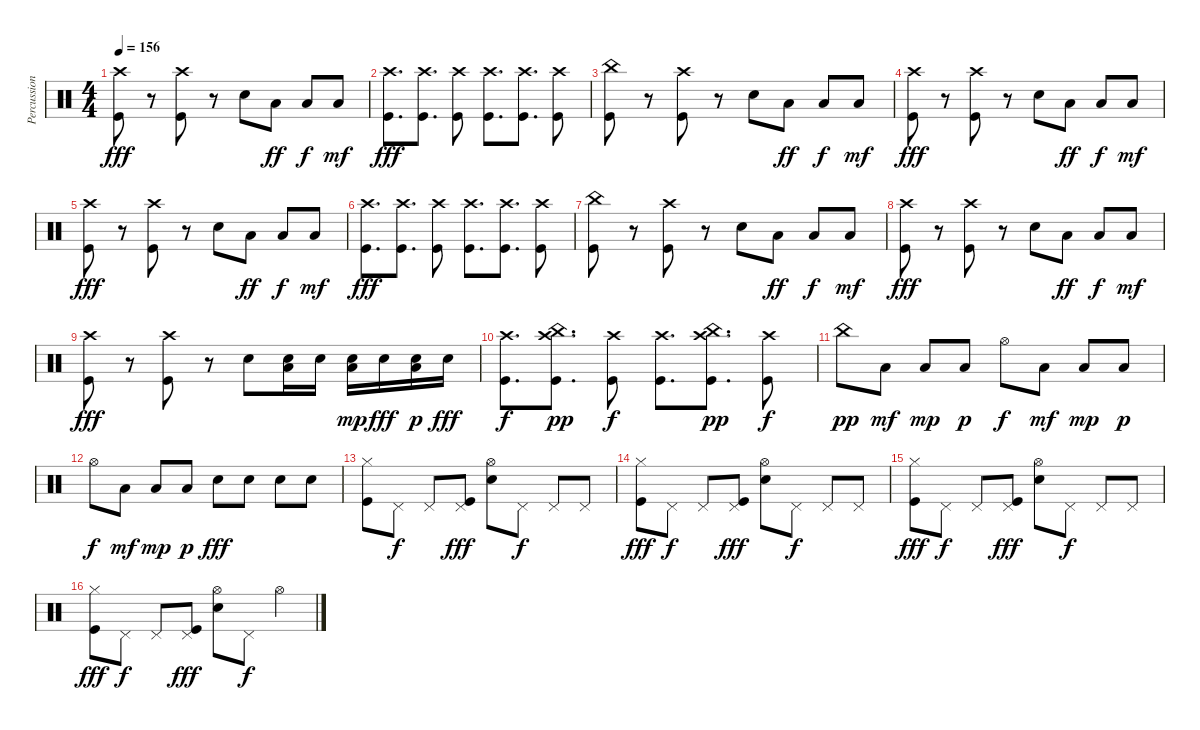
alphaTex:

\track ("Percussion" "Percussion") {instrument percussion}
\staff {score}
\articulation defaults
\ts (4 4)
\tempo 156
\clef neutral
\ks c
("Crash high (hit)" "Kick (hit)").8{dy fff} r.8 ("Crash high (hit)" "Kick (hit)").8 r.8 "Snare (hit) 2".8 "Low Tom (hit)".8{dy ff} "Low Tom (hit)".8{dy f} "Low Tom (hit)".8{dy mf} |
("Crash high (hit)" "Kick (hit)").8{d dy fff} ("Crash high (hit)" "Kick (hit)").8{d} ("Crash high (hit)" "Kick (hit)").8 ("Crash high (hit)" "Kick (hit)").8{d} ("Crash high (hit)" "Kick (hit)").8{d} ("Crash high (hit)" "Kick (hit)").8 |
("China (hit)" "Kick (hit)").8 r.8 ("Crash high (hit)" "Kick (hit)").8 r.8 "Snare (hit) 2".8 "Low Tom (hit)".8{dy ff} "Low Tom (hit)".8{dy f} "Low Tom (hit)".8{dy mf} |
("Crash high (hit)" "Kick (hit)").8{dy fff} r.8 ("Crash high (hit)" "Kick (hit)").8 r.8 "Snare (hit) 2".8 "Low Tom (hit)".8{dy ff} "Low Tom (hit)".8{dy f} "Low Tom (hit)".8{dy mf} |
("Crash high (hit)" "Kick (hit)").8{dy fff} r.8 ("Crash high (hit)" "Kick (hit)").8 r.8 "Snare (hit) 2".8 "Low Tom (hit)".8{dy ff} "Low Tom (hit)".8{dy f} "Low Tom (hit)".8{dy mf} |
("Crash high (hit)" "Kick (hit)").8{d dy fff} ("Crash high (hit)" "Kick (hit)").8{d} ("Crash high (hit)" "Kick (hit)").8 ("Crash high (hit)" "Kick (hit)").8{d} ("Crash high (hit)" "Kick (hit)").8{d} ("Crash high (hit)" "Kick (hit)").8 |
("China (hit)" "Kick (hit)").8 r.8 ("Crash high (hit)" "Kick (hit)").8 r.8 "Snare (hit) 2".8 "Low Tom (hit)".8{dy ff} "Low Tom (hit)".8{dy f} "Low Tom (hit)".8{dy mf} |
("Crash high (hit)" "Kick (hit)").8{dy fff} r.8 ("Crash high (hit)" "Kick (hit)").8 r.8 "Snare (hit) 2".8 "Low Tom (hit)".8{dy ff} "Low Tom (hit)".8{dy f} "Low Tom (hit)".8{dy mf} |
("Crash high (hit)" "Kick (hit)").8{dy fff} r.8 ("Crash high (hit)" "Kick (hit)").8 r.8 "Snare (hit) 2".8 ("Snare (hit) 2" "Low Tom (hit)").16 "Snare (hit) 2".16 ("Snare (hit) 2" "Low Tom (hit)").16{dy mp} "Snare (hit) 2".16{dy fff} ("Snare (hit) 2" "Low Tom (hit)").16{dy p} "Snare (hit) 2".16{dy fff} |
("Crash high (hit)" "Kick (hit)").8{d dy f} ("Crash high (hit)" "China (hit)" "Kick (hit)").8{d dy pp} ("Crash high (hit)" "Kick (hit)").8{dy f} ("Crash high (hit)" "Kick (hit)").8{d} ("Crash high (hit)" "China (hit)" "Kick (hit)").8{d dy pp} ("Crash high (hit)" "Kick (hit)").8{dy f} |
"China (hit)".8{dy pp} "Low Tom (hit)".8{dy mf} "Low Tom (hit)".8{dy mp} "Low Tom (hit)".8{dy p} "Hi-Hat (open)".8{dy f} "Low Tom (hit)".8{dy mf} "Low Tom (hit)".8{dy mp} "Low Tom (hit)".8{dy p} |
"Hi-Hat (open)".8{dy f} "Low Tom (hit)".8{dy mf} "Low Tom (hit)".8{dy mp} "Low Tom (hit)".8{dy p} "Snare (hit) 2".8{dy fff} "Snare (hit) 2".8 "Snare (hit) 2".8 "Snare (hit) 2".8 |
("Hi-Hat (closed)" "Kick (hit)").8 "Pedal Hi-Hat (hit)".8{dy f} "Pedal Hi-Hat (hit)".8 ("Pedal Hi-Hat (hit)" "Kick (hit)").8{dy fff} ("Hi-Hat (open)" "Snare (hit) 2").8 "Pedal Hi-Hat (hit)".8{dy f} "Pedal Hi-Hat (hit)".8 "Pedal Hi-Hat (hit)".8 |
("Hi-Hat (closed)" "Kick (hit)").8{dy fff} "Pedal Hi-Hat (hit)".8{dy f} "Pedal Hi-Hat (hit)".8 ("Pedal Hi-Hat (hit)" "Kick (hit)").8{dy fff} ("Hi-Hat (open)" "Snare (hit) 2").8 "Pedal Hi-Hat (hit)".8{dy f} "Pedal Hi-Hat (hit)".8 "Pedal Hi-Hat (hit)".8 |
("Hi-Hat (closed)" "Kick (hit)").8{dy fff} "Pedal Hi-Hat (hit)".8{dy f} "Pedal Hi-Hat (hit)".8 ("Pedal Hi-Hat (hit)" "Kick (hit)").8{dy fff} ("Hi-Hat (open)" "Snare (hit) 2").8 "Pedal Hi-Hat (hit)".8{dy f} "Pedal Hi-Hat (hit)".8 "Pedal Hi-Hat (hit)".8 |
("Hi-Hat (closed)" "Kick (hit)").8{dy fff} "Pedal Hi-Hat (hit)".8{dy f} "Pedal Hi-Hat (hit)".8 ("Pedal Hi-Hat (hit)" "Kick (hit)").8{dy fff} ("Hi-Hat (open)" "Snare (hit) 2").8 "Pedal Hi-Hat (hit)".8{dy f} "Hi-Hat (open)".4
